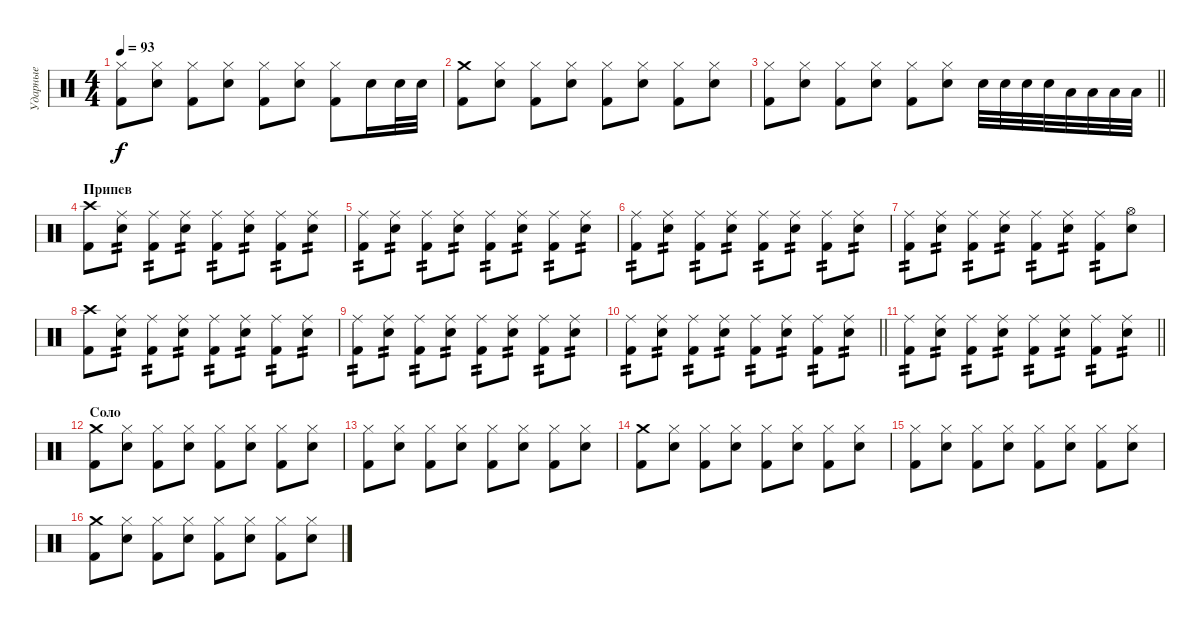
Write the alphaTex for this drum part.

\track ("Ударные" "Ударные") {instrument percussion}
\staff {score}
\articulation defaults
\ts (4 4)
\tempo 93
\clef neutral
\ks c
("Kick (hit) 2" "Hi-Hat (closed)").8{dy f} ("Electric Snare (hit)" "Hi-Hat (closed)").8 ("Kick (hit) 2" "Hi-Hat (closed)").8 ("Electric Snare (hit)" "Hi-Hat (closed)").8 ("Kick (hit) 2" "Hi-Hat (closed)").8 ("Electric Snare (hit)" "Hi-Hat (closed)").8 ("Kick (hit) 2" "Hi-Hat (closed)").8 "Electric Snare (hit)".16 "Electric Snare (hit)".32 "Electric Snare (hit)".32 |
("Kick (hit) 2" "Crash medium (hit)").8 ("Electric Snare (hit)" "Hi-Hat (closed)").8 ("Kick (hit) 2" "Hi-Hat (closed)").8 ("Electric Snare (hit)" "Hi-Hat (closed)").8 ("Kick (hit) 2" "Hi-Hat (closed)").8 ("Electric Snare (hit)" "Hi-Hat (closed)").8 ("Kick (hit) 2" "Hi-Hat (closed)").8 ("Electric Snare (hit)" "Hi-Hat (closed)").8 |
\barLineRight lightlight
("Kick (hit) 2" "Hi-Hat (closed)").8 ("Electric Snare (hit)" "Hi-Hat (closed)").8 ("Kick (hit) 2" "Hi-Hat (closed)").8 ("Electric Snare (hit)" "Hi-Hat (closed)").8 ("Kick (hit) 2" "Hi-Hat (closed)").8 ("Electric Snare (hit)" "Hi-Hat (closed)").8 "Electric Snare (hit)".32 "Electric Snare (hit)".32 "Electric Snare (hit)".32 "Electric Snare (hit)".32 "Low Tom (hit)".32 "Low Tom (hit)".32 "Low Tom (hit)".32 "Low Tom (hit)".32 |
\section ("" "Припев")
("Kick (hit) 2" "Crash high (hit)").8 ("Electric Snare (hit)" "Ride (middle)").8{tp 2} ("Kick (hit) 2" "Ride (middle)").8{tp 2} ("Electric Snare (hit)" "Ride (middle)").8{tp 2} ("Kick (hit) 2" "Ride (middle)").8{tp 2} ("Electric Snare (hit)" "Ride (middle)").8{tp 2} ("Kick (hit) 2" "Ride (middle)").8{tp 2} ("Electric Snare (hit)" "Ride (middle)").8{tp 2} |
("Kick (hit) 2" "Ride (middle)").8{tp 2} ("Electric Snare (hit)" "Ride (middle)").8{tp 2} ("Kick (hit) 2" "Ride (middle)").8{tp 2} ("Electric Snare (hit)" "Ride (middle)").8{tp 2} ("Kick (hit) 2" "Ride (middle)").8{tp 2} ("Electric Snare (hit)" "Ride (middle)").8{tp 2} ("Kick (hit) 2" "Ride (middle)").8{tp 2} ("Electric Snare (hit)" "Ride (middle)").8{tp 2} |
("Kick (hit) 2" "Ride (middle)").8{tp 2} ("Electric Snare (hit)" "Ride (middle)").8{tp 2} ("Kick (hit) 2" "Ride (middle)").8{tp 2} ("Electric Snare (hit)" "Ride (middle)").8{tp 2} ("Kick (hit) 2" "Ride (middle)").8{tp 2} ("Electric Snare (hit)" "Ride (middle)").8{tp 2} ("Kick (hit) 2" "Ride (middle)").8{tp 2} ("Electric Snare (hit)" "Ride (middle)").8{tp 2} |
("Kick (hit) 2" "Ride (middle)").8{tp 2} ("Electric Snare (hit)" "Ride (middle)").8{tp 2} ("Kick (hit) 2" "Ride (middle)").8{tp 2} ("Electric Snare (hit)" "Ride (middle)").8{tp 2} ("Kick (hit) 2" "Ride (middle)").8{tp 2} ("Electric Snare (hit)" "Ride (middle)").8{tp 2} ("Kick (hit) 2" "Ride (middle)").8{tp 2} ("Electric Snare (hit)" "Hi-Hat (open)").8 |
("Kick (hit) 2" "Crash high (hit)").8 ("Electric Snare (hit)" "Ride (middle)").8{tp 2} ("Kick (hit) 2" "Ride (middle)").8{tp 2} ("Electric Snare (hit)" "Ride (middle)").8{tp 2} ("Kick (hit) 2" "Ride (middle)").8{tp 2} ("Electric Snare (hit)" "Ride (middle)").8{tp 2} ("Kick (hit) 2" "Ride (middle)").8{tp 2} ("Electric Snare (hit)" "Ride (middle)").8{tp 2} |
("Kick (hit) 2" "Ride (middle)").8{tp 2} ("Electric Snare (hit)" "Ride (middle)").8{tp 2} ("Kick (hit) 2" "Ride (middle)").8{tp 2} ("Electric Snare (hit)" "Ride (middle)").8{tp 2} ("Kick (hit) 2" "Ride (middle)").8{tp 2} ("Electric Snare (hit)" "Ride (middle)").8{tp 2} ("Kick (hit) 2" "Ride (middle)").8{tp 2} ("Electric Snare (hit)" "Ride (middle)").8{tp 2} |
\barLineRight lightlight
("Kick (hit) 2" "Ride (middle)").8{tp 2} ("Electric Snare (hit)" "Ride (middle)").8{tp 2} ("Kick (hit) 2" "Ride (middle)").8{tp 2} ("Electric Snare (hit)" "Ride (middle)").8{tp 2} ("Kick (hit) 2" "Ride (middle)").8{tp 2} ("Electric Snare (hit)" "Ride (middle)").8{tp 2} ("Kick (hit) 2" "Ride (middle)").8{tp 2} ("Electric Snare (hit)" "Ride (middle)").8{tp 2} |
\barLineRight lightlight
("Kick (hit) 2" "Ride (middle)").8{tp 2} ("Electric Snare (hit)" "Ride (middle)").8{tp 2} ("Kick (hit) 2" "Ride (middle)").8{tp 2} ("Electric Snare (hit)" "Ride (middle)").8{tp 2} ("Kick (hit) 2" "Ride (middle)").8{tp 2} ("Electric Snare (hit)" "Ride (middle)").8{tp 2} ("Kick (hit) 2" "Ride (middle)").8{tp 2} ("Electric Snare (hit)" "Ride (middle)").8{tp 2} |
\section ("" "Соло")
("Kick (hit) 2" "Crash medium (hit)").8 ("Electric Snare (hit)" "Hi-Hat (closed)").8 ("Kick (hit) 2" "Hi-Hat (closed)").8 ("Electric Snare (hit)" "Hi-Hat (closed)").8 ("Kick (hit) 2" "Hi-Hat (closed)").8 ("Electric Snare (hit)" "Hi-Hat (closed)").8 ("Kick (hit) 2" "Hi-Hat (closed)").8 ("Electric Snare (hit)" "Hi-Hat (closed)").8 |
("Kick (hit) 2" "Hi-Hat (closed)").8 ("Electric Snare (hit)" "Hi-Hat (closed)").8 ("Kick (hit) 2" "Hi-Hat (closed)").8 ("Electric Snare (hit)" "Hi-Hat (closed)").8 ("Kick (hit) 2" "Hi-Hat (closed)").8 ("Electric Snare (hit)" "Hi-Hat (closed)").8 ("Kick (hit) 2" "Hi-Hat (closed)").8 ("Electric Snare (hit)" "Hi-Hat (closed)").8 |
("Kick (hit) 2" "Crash medium (hit)").8 ("Electric Snare (hit)" "Hi-Hat (closed)").8 ("Kick (hit) 2" "Hi-Hat (closed)").8 ("Electric Snare (hit)" "Hi-Hat (closed)").8 ("Kick (hit) 2" "Hi-Hat (closed)").8 ("Electric Snare (hit)" "Hi-Hat (closed)").8 ("Kick (hit) 2" "Hi-Hat (closed)").8 ("Electric Snare (hit)" "Hi-Hat (closed)").8 |
("Kick (hit) 2" "Hi-Hat (closed)").8 ("Electric Snare (hit)" "Hi-Hat (closed)").8 ("Kick (hit) 2" "Hi-Hat (closed)").8 ("Electric Snare (hit)" "Hi-Hat (closed)").8 ("Kick (hit) 2" "Hi-Hat (closed)").8 ("Electric Snare (hit)" "Hi-Hat (closed)").8 ("Kick (hit) 2" "Hi-Hat (closed)").8 ("Electric Snare (hit)" "Hi-Hat (closed)").8 |
("Kick (hit) 2" "Crash medium (hit)").8 ("Electric Snare (hit)" "Hi-Hat (closed)").8 ("Kick (hit) 2" "Hi-Hat (closed)").8 ("Electric Snare (hit)" "Hi-Hat (closed)").8 ("Kick (hit) 2" "Hi-Hat (closed)").8 ("Electric Snare (hit)" "Hi-Hat (closed)").8 ("Kick (hit) 2" "Hi-Hat (closed)").8 ("Electric Snare (hit)" "Hi-Hat (closed)").8
